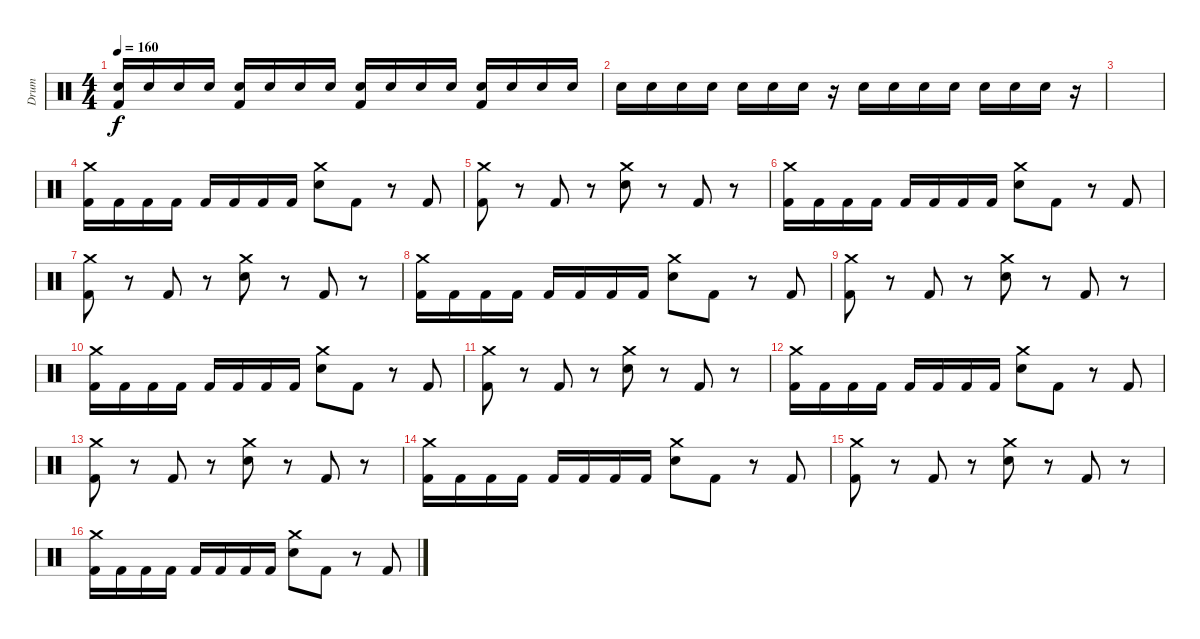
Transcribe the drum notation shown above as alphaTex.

\track ("Drum" "Drum") {instrument percussion}
\staff {score}
\articulation defaults
\ts (4 4)
\tempo 160
\clef neutral
\ks c
("Electric Snare (hit)" "Kick (hit) 2").16{dy f} "Electric Snare (hit)".16 "Electric Snare (hit)".16 "Electric Snare (hit)".16 ("Electric Snare (hit)" "Kick (hit) 2").16 "Electric Snare (hit)".16 "Electric Snare (hit)".16 "Electric Snare (hit)".16 ("Electric Snare (hit)" "Kick (hit) 2").16 "Electric Snare (hit)".16 "Electric Snare (hit)".16 "Electric Snare (hit)".16 ("Electric Snare (hit)" "Kick (hit) 2").16 "Electric Snare (hit)".16 "Electric Snare (hit)".16 "Electric Snare (hit)".16 |
"Electric Snare (hit)".16 "Electric Snare (hit)".16 "Electric Snare (hit)".16 "Electric Snare (hit)".16 "Electric Snare (hit)".16 "Electric Snare (hit)".16 "Electric Snare (hit)".16 r.16 "Electric Snare (hit)".16 "Electric Snare (hit)".16 "Electric Snare (hit)".16 "Electric Snare (hit)".16 "Electric Snare (hit)".16 "Electric Snare (hit)".16 "Electric Snare (hit)".16 r.16 |
|
("Crash medium (hit)" "Kick (hit) 2").16 "Kick (hit) 2".16 "Kick (hit) 2".16 "Kick (hit) 2".16 "Kick (hit) 2".16 "Kick (hit) 2".16 "Kick (hit) 2".16 "Kick (hit) 2".16 ("Crash medium (hit)" "Electric Snare (hit)").8 "Kick (hit) 2".8 r.8 "Kick (hit) 2".8 |
("Crash medium (hit)" "Kick (hit) 2").8 r.8 "Kick (hit) 2".8 r.8 ("Crash medium (hit)" "Electric Snare (hit)").8 r.8 "Kick (hit) 2".8 r.8 |
("Crash medium (hit)" "Kick (hit) 2").16 "Kick (hit) 2".16 "Kick (hit) 2".16 "Kick (hit) 2".16 "Kick (hit) 2".16 "Kick (hit) 2".16 "Kick (hit) 2".16 "Kick (hit) 2".16 ("Crash medium (hit)" "Electric Snare (hit)").8 "Kick (hit) 2".8 r.8 "Kick (hit) 2".8 |
("Crash medium (hit)" "Kick (hit) 2").8 r.8 "Kick (hit) 2".8 r.8 ("Crash medium (hit)" "Electric Snare (hit)").8 r.8 "Kick (hit) 2".8 r.8 |
("Crash medium (hit)" "Kick (hit) 2").16 "Kick (hit) 2".16 "Kick (hit) 2".16 "Kick (hit) 2".16 "Kick (hit) 2".16 "Kick (hit) 2".16 "Kick (hit) 2".16 "Kick (hit) 2".16 ("Crash medium (hit)" "Electric Snare (hit)").8 "Kick (hit) 2".8 r.8 "Kick (hit) 2".8 |
("Crash medium (hit)" "Kick (hit) 2").8 r.8 "Kick (hit) 2".8 r.8 ("Crash medium (hit)" "Electric Snare (hit)").8 r.8 "Kick (hit) 2".8 r.8 |
("Crash medium (hit)" "Kick (hit) 2").16 "Kick (hit) 2".16 "Kick (hit) 2".16 "Kick (hit) 2".16 "Kick (hit) 2".16 "Kick (hit) 2".16 "Kick (hit) 2".16 "Kick (hit) 2".16 ("Crash medium (hit)" "Electric Snare (hit)").8 "Kick (hit) 2".8 r.8 "Kick (hit) 2".8 |
("Crash medium (hit)" "Kick (hit) 2").8 r.8 "Kick (hit) 2".8 r.8 ("Crash medium (hit)" "Electric Snare (hit)").8 r.8 "Kick (hit) 2".8 r.8 |
("Crash medium (hit)" "Kick (hit) 2").16 "Kick (hit) 2".16 "Kick (hit) 2".16 "Kick (hit) 2".16 "Kick (hit) 2".16 "Kick (hit) 2".16 "Kick (hit) 2".16 "Kick (hit) 2".16 ("Crash medium (hit)" "Electric Snare (hit)").8 "Kick (hit) 2".8 r.8 "Kick (hit) 2".8 |
("Crash medium (hit)" "Kick (hit) 2").8 r.8 "Kick (hit) 2".8 r.8 ("Crash medium (hit)" "Electric Snare (hit)").8 r.8 "Kick (hit) 2".8 r.8 |
("Crash medium (hit)" "Kick (hit) 2").16 "Kick (hit) 2".16 "Kick (hit) 2".16 "Kick (hit) 2".16 "Kick (hit) 2".16 "Kick (hit) 2".16 "Kick (hit) 2".16 "Kick (hit) 2".16 ("Crash medium (hit)" "Electric Snare (hit)").8 "Kick (hit) 2".8 r.8 "Kick (hit) 2".8 |
("Crash medium (hit)" "Kick (hit) 2").8 r.8 "Kick (hit) 2".8 r.8 ("Crash medium (hit)" "Electric Snare (hit)").8 r.8 "Kick (hit) 2".8 r.8 |
("Crash medium (hit)" "Kick (hit) 2").16 "Kick (hit) 2".16 "Kick (hit) 2".16 "Kick (hit) 2".16 "Kick (hit) 2".16 "Kick (hit) 2".16 "Kick (hit) 2".16 "Kick (hit) 2".16 ("Crash medium (hit)" "Electric Snare (hit)").8 "Kick (hit) 2".8 r.8 "Kick (hit) 2".8
